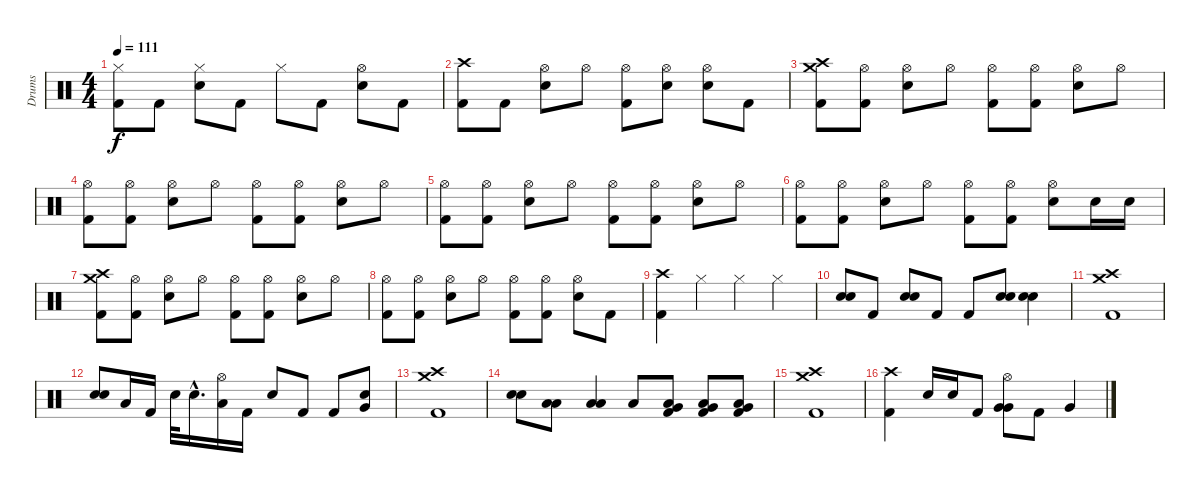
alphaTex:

\track ("Drums" "Drums") {instrument percussion}
\staff {score}
\articulation defaults
\ts (4 4)
\tempo 111
\clef neutral
\ks c
("Hi-Hat (closed)" "Kick (hit) 2").8{dy f} "Kick (hit) 2".8 ("Hi-Hat (closed)" "Snare (hit) 2").8 "Kick (hit) 2".8 "Hi-Hat (closed)".8 "Kick (hit) 2".8 ("Hi-Hat (open)" "Snare (hit) 2").8 "Kick (hit) 2".8 |
("Crash high (hit)" "Kick (hit) 2").8 "Kick (hit) 2".8 ("Hi-Hat (open)" "Snare (hit) 2").8 "Hi-Hat (open)".8 ("Hi-Hat (open)" "Kick (hit) 2").8 ("Hi-Hat (open)" "Snare (hit) 2").8 ("Hi-Hat (open)" "Snare (hit) 2").8 "Kick (hit) 2".8 |
("Crash high (hit)" "Crash medium (hit)" "Kick (hit) 2").8 ("Hi-Hat (open)" "Kick (hit) 2").8 ("Hi-Hat (open)" "Snare (hit) 2").8 "Hi-Hat (open)".8 ("Hi-Hat (open)" "Kick (hit) 2").8 ("Hi-Hat (open)" "Kick (hit) 2").8 ("Hi-Hat (open)" "Snare (hit) 2").8 "Hi-Hat (open)".8 |
("Hi-Hat (open)" "Kick (hit) 2").8 ("Hi-Hat (open)" "Kick (hit) 2").8 ("Hi-Hat (open)" "Snare (hit) 2").8 "Hi-Hat (open)".8 ("Hi-Hat (open)" "Kick (hit) 2").8 ("Hi-Hat (open)" "Kick (hit) 2").8 ("Hi-Hat (open)" "Snare (hit) 2").8 "Hi-Hat (open)".8 |
("Hi-Hat (open)" "Kick (hit) 2").8 ("Hi-Hat (open)" "Kick (hit) 2").8 ("Hi-Hat (open)" "Snare (hit) 2").8 "Hi-Hat (open)".8 ("Hi-Hat (open)" "Kick (hit) 2").8 ("Hi-Hat (open)" "Kick (hit) 2").8 ("Hi-Hat (open)" "Snare (hit) 2").8 "Hi-Hat (open)".8 |
("Hi-Hat (open)" "Kick (hit) 2").8 ("Hi-Hat (open)" "Kick (hit) 2").8 ("Hi-Hat (open)" "Snare (hit) 2").8 "Hi-Hat (open)".8 ("Hi-Hat (open)" "Kick (hit) 2").8 ("Hi-Hat (open)" "Kick (hit) 2").8 ("Hi-Hat (open)" "Snare (hit) 2").8 "Snare (hit) 2".16 "Snare (hit) 2".16 |
("Crash high (hit)" "Crash medium (hit)" "Kick (hit) 2").8 ("Hi-Hat (open)" "Kick (hit) 2").8 ("Hi-Hat (open)" "Snare (hit) 2").8 "Hi-Hat (open)".8 ("Hi-Hat (open)" "Kick (hit) 2").8 ("Hi-Hat (open)" "Kick (hit) 2").8 ("Hi-Hat (open)" "Snare (hit) 2").8 "Hi-Hat (open)".8 |
("Hi-Hat (open)" "Kick (hit) 2").8 ("Hi-Hat (open)" "Kick (hit) 2").8 ("Hi-Hat (open)" "Snare (hit) 2").8 "Hi-Hat (open)".8 ("Hi-Hat (open)" "Kick (hit) 2").8 ("Hi-Hat (open)" "Kick (hit) 2").8 ("Hi-Hat (open)" "Snare (hit) 2").8 "Kick (hit) 2".8 |
("Crash high (hit)" "Kick (hit) 2").4 "Hi-Hat (closed)".4 "Hi-Hat (closed)".4 "Hi-Hat (closed)".4 |
("Snare (hit) 2" "Snare (hit) 2").8 "Kick (hit) 2".8 ("Snare (hit) 2" "Snare (hit) 2").8 "Kick (hit) 2".8 "Kick (hit) 2".8 ("Snare (hit) 2" "Snare (hit) 2").8 ("Snare (hit) 2" "Snare (hit) 2").4 |
("Crash high (hit)" "Crash medium (hit)" "Kick (hit) 2").1 |
("Snare (hit) 2" "Snare (hit) 2").8 "Low Tom (hit)".16 "Kick (hit) 2".16 "Snare (hit) 2".32 "Snare (hit) 2"{hac}.16{d} ("Hi-Hat (open)" "Low Tom (hit)").16 "Kick (hit) 2".16 "Snare (hit) 2".8 "Kick (hit) 2".8 "Kick (hit) 2".8 ("Very Low Tom (hit)" "Snare (hit) 2").8 |
("Crash high (hit)" "Crash medium (hit)" "Kick (hit) 2").1 |
("Snare (hit) 2" "Snare (hit) 2").8 ("Low Tom (hit)" "Low Tom (hit)").8 ("Low Tom (hit)" "Low Tom (hit)").4 "Low Tom (hit)".8 ("Low Tom (hit)" "Very Low Tom (hit)" "Kick (hit) 2").8 ("Low Tom (hit)" "Very Low Tom (hit)" "Kick (hit) 2").8 ("Low Tom (hit)" "Very Low Tom (hit)" "Kick (hit) 2").8 |
("Crash high (hit)" "Crash medium (hit)" "Kick (hit) 2").1 |
("Crash high (hit)" "Kick (hit) 2").4 "Snare (hit) 2".16 "Snare (hit) 2".16 "Kick (hit) 2".8 ("Hi-Hat (open)" "Very Low Tom (hit)" "Very Low Tom (hit)").8 "Kick (hit) 2".8 "Very Low Tom (hit)".4
